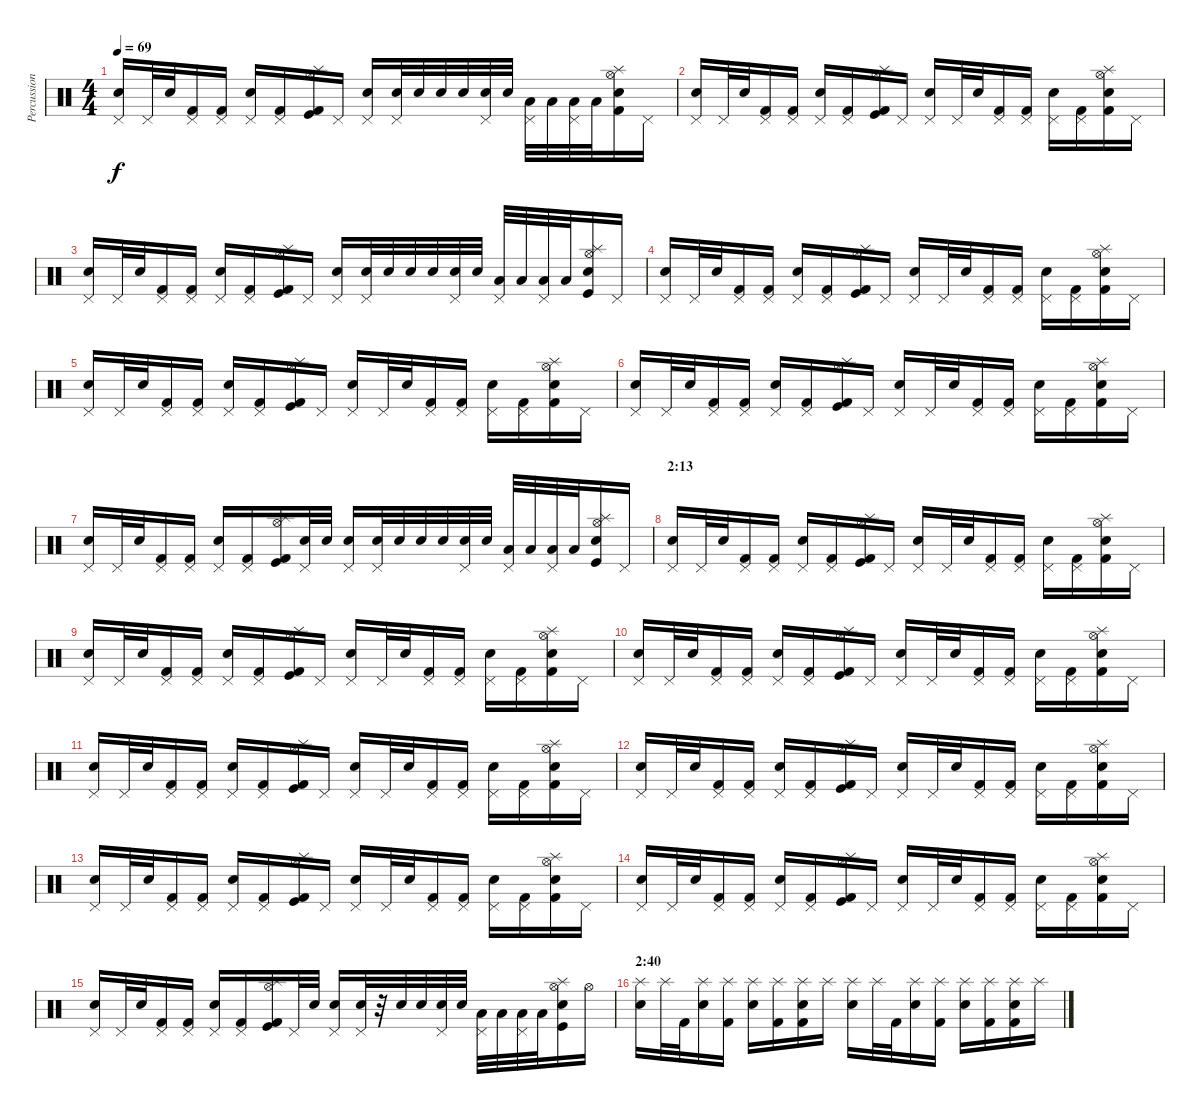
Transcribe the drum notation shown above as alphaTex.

\track ("Percussion" "Percussion") {instrument percussion}
\staff {score}
\articulation defaults
\ts (4 4)
\tempo 69
\clef neutral
\ks c
("Pedal Hi-Hat (hit)" "Snare (hit) 2").16{dy f} "Pedal Hi-Hat (hit)".32 "Snare (hit) 2".32 ("Pedal Hi-Hat (hit)" "Kick (hit) 2").16 ("Pedal Hi-Hat (hit)" "Kick (hit) 2").16 ("Pedal Hi-Hat (hit)" "Snare (hit) 2").16 ("Pedal Hi-Hat (hit)" "Kick (hit) 2").16 ("Splash (hit)" "Hi-Hat (open)" "Kick (hit)" "Kick (hit) 2").16 "Pedal Hi-Hat (hit)".16 ("Pedal Hi-Hat (hit)" "Snare (hit) 2").16 ("Pedal Hi-Hat (hit)" "Snare (hit) 2").32 "Snare (hit) 2".32 "Snare (hit) 2".32 "Snare (hit) 2".32 ("Pedal Hi-Hat (hit)" "Snare (hit) 2").32 "Snare (hit) 2".32 ("Pedal Hi-Hat (hit)" "Low Floor Tom (hit)").32 "Low Floor Tom (hit)".32 ("Pedal Hi-Hat (hit)" "Low Floor Tom (hit)").32 "Low Floor Tom (hit)".32 ("Splash (hit)" "Hi-Hat (open)" "Snare (hit) 2" "Kick (hit) 2").16 "Pedal Hi-Hat (hit)".16 |
("Pedal Hi-Hat (hit)" "Snare (hit) 2").16 "Pedal Hi-Hat (hit)".32 "Snare (hit) 2".32 ("Pedal Hi-Hat (hit)" "Kick (hit) 2").16 ("Pedal Hi-Hat (hit)" "Kick (hit) 2").16 ("Pedal Hi-Hat (hit)" "Snare (hit) 2").16 ("Pedal Hi-Hat (hit)" "Kick (hit) 2").16 ("Splash (hit)" "Hi-Hat (open)" "Kick (hit)" "Kick (hit) 2").16 "Pedal Hi-Hat (hit)".16 ("Pedal Hi-Hat (hit)" "Snare (hit) 2").16 "Pedal Hi-Hat (hit)".32 "Snare (hit) 2".32 ("Pedal Hi-Hat (hit)" "Kick (hit) 2").16 ("Pedal Hi-Hat (hit)" "Kick (hit) 2").16 ("Pedal Hi-Hat (hit)" "Snare (hit) 2").16 ("Pedal Hi-Hat (hit)" "Kick (hit) 2").16 ("Splash (hit)" "Hi-Hat (open)" "Snare (hit) 2" "Kick (hit) 2").16 "Pedal Hi-Hat (hit)".16 |
("Pedal Hi-Hat (hit)" "Snare (hit) 2").16 "Pedal Hi-Hat (hit)".32 "Snare (hit) 2".32 ("Pedal Hi-Hat (hit)" "Kick (hit) 2").16 ("Pedal Hi-Hat (hit)" "Kick (hit) 2").16 ("Pedal Hi-Hat (hit)" "Snare (hit) 2").16 ("Pedal Hi-Hat (hit)" "Kick (hit) 2").16 ("Splash (hit)" "Hi-Hat (open)" "Kick (hit)" "Kick (hit) 2").16 "Pedal Hi-Hat (hit)".16 ("Pedal Hi-Hat (hit)" "Snare (hit) 2").16 ("Pedal Hi-Hat (hit)" "Snare (hit) 2").32 "Snare (hit) 2".32 "Snare (hit) 2".32 "Snare (hit) 2".32 ("Pedal Hi-Hat (hit)" "Snare (hit) 2").32 "Snare (hit) 2".32 ("Pedal Hi-Hat (hit)" "Low Floor Tom (hit)").32 "Low Floor Tom (hit)".32 ("Pedal Hi-Hat (hit)" "Low Floor Tom (hit)").32 "Low Floor Tom (hit)".32 ("Splash (hit)" "Hi-Hat (open)" "Snare (hit) 2" "Kick (hit)").16 "Pedal Hi-Hat (hit)".16 |
("Pedal Hi-Hat (hit)" "Snare (hit) 2").16 "Pedal Hi-Hat (hit)".32 "Snare (hit) 2".32 ("Pedal Hi-Hat (hit)" "Kick (hit) 2").16 ("Pedal Hi-Hat (hit)" "Kick (hit) 2").16 ("Pedal Hi-Hat (hit)" "Snare (hit) 2").16 ("Pedal Hi-Hat (hit)" "Kick (hit) 2").16 ("Splash (hit)" "Hi-Hat (open)" "Kick (hit)" "Kick (hit) 2").16 "Pedal Hi-Hat (hit)".16 ("Pedal Hi-Hat (hit)" "Snare (hit) 2").16 "Pedal Hi-Hat (hit)".32 "Snare (hit) 2".32 ("Pedal Hi-Hat (hit)" "Kick (hit) 2").16 ("Pedal Hi-Hat (hit)" "Kick (hit) 2").16 ("Pedal Hi-Hat (hit)" "Snare (hit) 2").16 ("Pedal Hi-Hat (hit)" "Kick (hit) 2").16 ("Splash (hit)" "Hi-Hat (open)" "Snare (hit) 2" "Kick (hit) 2").16 "Pedal Hi-Hat (hit)".16 |
("Pedal Hi-Hat (hit)" "Snare (hit) 2").16 "Pedal Hi-Hat (hit)".32 "Snare (hit) 2".32 ("Pedal Hi-Hat (hit)" "Kick (hit) 2").16 ("Pedal Hi-Hat (hit)" "Kick (hit) 2").16 ("Pedal Hi-Hat (hit)" "Snare (hit) 2").16 ("Pedal Hi-Hat (hit)" "Kick (hit) 2").16 ("Splash (hit)" "Hi-Hat (open)" "Kick (hit)" "Kick (hit) 2").16 "Pedal Hi-Hat (hit)".16 ("Pedal Hi-Hat (hit)" "Snare (hit) 2").16 "Pedal Hi-Hat (hit)".32 "Snare (hit) 2".32 ("Pedal Hi-Hat (hit)" "Kick (hit) 2").16 ("Pedal Hi-Hat (hit)" "Kick (hit) 2").16 ("Pedal Hi-Hat (hit)" "Snare (hit) 2").16 ("Pedal Hi-Hat (hit)" "Kick (hit) 2").16 ("Splash (hit)" "Hi-Hat (open)" "Snare (hit) 2" "Kick (hit) 2").16 "Pedal Hi-Hat (hit)".16 |
("Pedal Hi-Hat (hit)" "Snare (hit) 2").16 "Pedal Hi-Hat (hit)".32 "Snare (hit) 2".32 ("Pedal Hi-Hat (hit)" "Kick (hit) 2").16 ("Pedal Hi-Hat (hit)" "Kick (hit) 2").16 ("Pedal Hi-Hat (hit)" "Snare (hit) 2").16 ("Pedal Hi-Hat (hit)" "Kick (hit) 2").16 ("Splash (hit)" "Hi-Hat (open)" "Kick (hit)" "Kick (hit) 2").16 "Pedal Hi-Hat (hit)".16 ("Pedal Hi-Hat (hit)" "Snare (hit) 2").16 "Pedal Hi-Hat (hit)".32 "Snare (hit) 2".32 ("Pedal Hi-Hat (hit)" "Kick (hit) 2").16 ("Pedal Hi-Hat (hit)" "Kick (hit) 2").16 ("Pedal Hi-Hat (hit)" "Snare (hit) 2").16 ("Pedal Hi-Hat (hit)" "Kick (hit) 2").16 ("Splash (hit)" "Hi-Hat (open)" "Snare (hit) 2" "Kick (hit) 2").16 "Pedal Hi-Hat (hit)".16 |
("Pedal Hi-Hat (hit)" "Snare (hit) 2").16 "Pedal Hi-Hat (hit)".32 "Snare (hit) 2".32 ("Pedal Hi-Hat (hit)" "Kick (hit) 2").16 ("Pedal Hi-Hat (hit)" "Kick (hit) 2").16 ("Pedal Hi-Hat (hit)" "Snare (hit) 2").16 ("Pedal Hi-Hat (hit)" "Kick (hit) 2").16 ("Splash (hit)" "Hi-Hat (open)" "Kick (hit)" "Kick (hit) 2").16 ("Pedal Hi-Hat (hit)" "Snare (hit) 2").32 "Snare (hit) 2".32 ("Pedal Hi-Hat (hit)" "Snare (hit) 2").16 ("Pedal Hi-Hat (hit)" "Snare (hit) 2").32 "Snare (hit) 2".32 "Snare (hit) 2".32 "Snare (hit) 2".32 ("Pedal Hi-Hat (hit)" "Snare (hit) 2").32 "Snare (hit) 2".32 ("Pedal Hi-Hat (hit)" "Low Floor Tom (hit)").32 "Low Floor Tom (hit)".32 ("Pedal Hi-Hat (hit)" "Low Floor Tom (hit)").32 "Low Floor Tom (hit)".32 ("Splash (hit)" "Hi-Hat (open)" "Snare (hit) 2" "Kick (hit)").16 "Pedal Hi-Hat (hit)".16 |
\section ("" "2:13")
("Pedal Hi-Hat (hit)" "Snare (hit) 2").16 "Pedal Hi-Hat (hit)".32 "Snare (hit) 2".32 ("Pedal Hi-Hat (hit)" "Kick (hit) 2").16 ("Pedal Hi-Hat (hit)" "Kick (hit) 2").16 ("Pedal Hi-Hat (hit)" "Snare (hit) 2").16 ("Pedal Hi-Hat (hit)" "Kick (hit) 2").16 ("Splash (hit)" "Hi-Hat (open)" "Kick (hit)" "Kick (hit) 2").16 "Pedal Hi-Hat (hit)".16 ("Pedal Hi-Hat (hit)" "Snare (hit) 2").16 "Pedal Hi-Hat (hit)".32 "Snare (hit) 2".32 ("Pedal Hi-Hat (hit)" "Kick (hit) 2").16 ("Pedal Hi-Hat (hit)" "Kick (hit) 2").16 ("Pedal Hi-Hat (hit)" "Snare (hit) 2").16 ("Pedal Hi-Hat (hit)" "Kick (hit) 2").16 ("Splash (hit)" "Hi-Hat (open)" "Snare (hit) 2" "Kick (hit) 2").16 "Pedal Hi-Hat (hit)".16 |
("Pedal Hi-Hat (hit)" "Snare (hit) 2").16 "Pedal Hi-Hat (hit)".32 "Snare (hit) 2".32 ("Pedal Hi-Hat (hit)" "Kick (hit) 2").16 ("Pedal Hi-Hat (hit)" "Kick (hit) 2").16 ("Pedal Hi-Hat (hit)" "Snare (hit) 2").16 ("Pedal Hi-Hat (hit)" "Kick (hit) 2").16 ("Splash (hit)" "Hi-Hat (open)" "Kick (hit)" "Kick (hit) 2").16 "Pedal Hi-Hat (hit)".16 ("Pedal Hi-Hat (hit)" "Snare (hit) 2").16 "Pedal Hi-Hat (hit)".32 "Snare (hit) 2".32 ("Pedal Hi-Hat (hit)" "Kick (hit) 2").16 ("Pedal Hi-Hat (hit)" "Kick (hit) 2").16 ("Pedal Hi-Hat (hit)" "Snare (hit) 2").16 ("Pedal Hi-Hat (hit)" "Kick (hit) 2").16 ("Splash (hit)" "Hi-Hat (open)" "Snare (hit) 2" "Kick (hit) 2").16 "Pedal Hi-Hat (hit)".16 |
("Pedal Hi-Hat (hit)" "Snare (hit) 2").16 "Pedal Hi-Hat (hit)".32 "Snare (hit) 2".32 ("Pedal Hi-Hat (hit)" "Kick (hit) 2").16 ("Pedal Hi-Hat (hit)" "Kick (hit) 2").16 ("Pedal Hi-Hat (hit)" "Snare (hit) 2").16 ("Pedal Hi-Hat (hit)" "Kick (hit) 2").16 ("Splash (hit)" "Hi-Hat (open)" "Kick (hit)" "Kick (hit) 2").16 "Pedal Hi-Hat (hit)".16 ("Pedal Hi-Hat (hit)" "Snare (hit) 2").16 "Pedal Hi-Hat (hit)".32 "Snare (hit) 2".32 ("Pedal Hi-Hat (hit)" "Kick (hit) 2").16 ("Pedal Hi-Hat (hit)" "Kick (hit) 2").16 ("Pedal Hi-Hat (hit)" "Snare (hit) 2").16 ("Pedal Hi-Hat (hit)" "Kick (hit) 2").16 ("Splash (hit)" "Hi-Hat (open)" "Snare (hit) 2" "Kick (hit) 2").16 "Pedal Hi-Hat (hit)".16 |
("Pedal Hi-Hat (hit)" "Snare (hit) 2").16 "Pedal Hi-Hat (hit)".32 "Snare (hit) 2".32 ("Pedal Hi-Hat (hit)" "Kick (hit) 2").16 ("Pedal Hi-Hat (hit)" "Kick (hit) 2").16 ("Pedal Hi-Hat (hit)" "Snare (hit) 2").16 ("Pedal Hi-Hat (hit)" "Kick (hit) 2").16 ("Splash (hit)" "Hi-Hat (open)" "Kick (hit)" "Kick (hit) 2").16 "Pedal Hi-Hat (hit)".16 ("Pedal Hi-Hat (hit)" "Snare (hit) 2").16 "Pedal Hi-Hat (hit)".32 "Snare (hit) 2".32 ("Pedal Hi-Hat (hit)" "Kick (hit) 2").16 ("Pedal Hi-Hat (hit)" "Kick (hit) 2").16 ("Pedal Hi-Hat (hit)" "Snare (hit) 2").16 ("Pedal Hi-Hat (hit)" "Kick (hit) 2").16 ("Splash (hit)" "Hi-Hat (open)" "Snare (hit) 2" "Kick (hit) 2").16 "Pedal Hi-Hat (hit)".16 |
("Pedal Hi-Hat (hit)" "Snare (hit) 2").16 "Pedal Hi-Hat (hit)".32 "Snare (hit) 2".32 ("Pedal Hi-Hat (hit)" "Kick (hit) 2").16 ("Pedal Hi-Hat (hit)" "Kick (hit) 2").16 ("Pedal Hi-Hat (hit)" "Snare (hit) 2").16 ("Pedal Hi-Hat (hit)" "Kick (hit) 2").16 ("Splash (hit)" "Hi-Hat (open)" "Kick (hit)" "Kick (hit) 2").16 "Pedal Hi-Hat (hit)".16 ("Pedal Hi-Hat (hit)" "Snare (hit) 2").16 "Pedal Hi-Hat (hit)".32 "Snare (hit) 2".32 ("Pedal Hi-Hat (hit)" "Kick (hit) 2").16 ("Pedal Hi-Hat (hit)" "Kick (hit) 2").16 ("Pedal Hi-Hat (hit)" "Snare (hit) 2").16 ("Pedal Hi-Hat (hit)" "Kick (hit) 2").16 ("Splash (hit)" "Hi-Hat (open)" "Snare (hit) 2" "Kick (hit) 2").16 "Pedal Hi-Hat (hit)".16 |
("Pedal Hi-Hat (hit)" "Snare (hit) 2").16 "Pedal Hi-Hat (hit)".32 "Snare (hit) 2".32 ("Pedal Hi-Hat (hit)" "Kick (hit) 2").16 ("Pedal Hi-Hat (hit)" "Kick (hit) 2").16 ("Pedal Hi-Hat (hit)" "Snare (hit) 2").16 ("Pedal Hi-Hat (hit)" "Kick (hit) 2").16 ("Splash (hit)" "Hi-Hat (open)" "Kick (hit)" "Kick (hit) 2").16 "Pedal Hi-Hat (hit)".16 ("Pedal Hi-Hat (hit)" "Snare (hit) 2").16 "Pedal Hi-Hat (hit)".32 "Snare (hit) 2".32 ("Pedal Hi-Hat (hit)" "Kick (hit) 2").16 ("Pedal Hi-Hat (hit)" "Kick (hit) 2").16 ("Pedal Hi-Hat (hit)" "Snare (hit) 2").16 ("Pedal Hi-Hat (hit)" "Kick (hit) 2").16 ("Splash (hit)" "Hi-Hat (open)" "Snare (hit) 2" "Kick (hit) 2").16 "Pedal Hi-Hat (hit)".16 |
("Pedal Hi-Hat (hit)" "Snare (hit) 2").16 "Pedal Hi-Hat (hit)".32 "Snare (hit) 2".32 ("Pedal Hi-Hat (hit)" "Kick (hit) 2").16 ("Pedal Hi-Hat (hit)" "Kick (hit) 2").16 ("Pedal Hi-Hat (hit)" "Snare (hit) 2").16 ("Pedal Hi-Hat (hit)" "Kick (hit) 2").16 ("Splash (hit)" "Hi-Hat (open)" "Kick (hit)" "Kick (hit) 2").16 "Pedal Hi-Hat (hit)".16 ("Pedal Hi-Hat (hit)" "Snare (hit) 2").16 "Pedal Hi-Hat (hit)".32 "Snare (hit) 2".32 ("Pedal Hi-Hat (hit)" "Kick (hit) 2").16 ("Pedal Hi-Hat (hit)" "Kick (hit) 2").16 ("Pedal Hi-Hat (hit)" "Snare (hit) 2").16 ("Pedal Hi-Hat (hit)" "Kick (hit) 2").16 ("Splash (hit)" "Hi-Hat (open)" "Snare (hit) 2" "Kick (hit) 2").16 "Pedal Hi-Hat (hit)".16 |
("Pedal Hi-Hat (hit)" "Snare (hit) 2").16 "Pedal Hi-Hat (hit)".32 "Snare (hit) 2".32 ("Pedal Hi-Hat (hit)" "Kick (hit) 2").16 ("Pedal Hi-Hat (hit)" "Kick (hit) 2").16 ("Pedal Hi-Hat (hit)" "Snare (hit) 2").16 ("Pedal Hi-Hat (hit)" "Kick (hit) 2").16 ("Splash (hit)" "Hi-Hat (open)" "Kick (hit)" "Kick (hit) 2").16 "Pedal Hi-Hat (hit)".32 "Snare (hit) 2".32 ("Pedal Hi-Hat (hit)" "Snare (hit) 2").16 ("Pedal Hi-Hat (hit)" "Snare (hit) 2").32 r.32 "Snare (hit) 2".32 "Snare (hit) 2".32 ("Pedal Hi-Hat (hit)" "Snare (hit) 2").32 "Snare (hit) 2".32 ("Pedal Hi-Hat (hit)" "Low Floor Tom (hit)").32 "Low Floor Tom (hit)".32 ("Pedal Hi-Hat (hit)" "Low Floor Tom (hit)").32 "Low Floor Tom (hit)".32 ("Splash (hit)" "Hi-Hat (open)" "Snare (hit) 2" "Kick (hit)").16 "Hi-Hat (open)".16 |
\section ("" "2:40")
("Splash (hit)" "Snare (hit) 2").16 "Splash (hit)".32 "Kick (hit) 2".32 ("Splash (hit)" "Snare (hit) 2").16 ("Splash (hit)" "Kick (hit) 2").16 ("Splash (hit)" "Snare (hit) 2").16 ("Splash (hit)" "Kick (hit) 2").16 ("Splash (hit)" "Snare (hit) 2" "Kick (hit) 2").16 "Splash (hit)".16 ("Splash (hit)" "Snare (hit) 2").16 "Splash (hit)".32 "Kick (hit) 2".32 ("Splash (hit)" "Snare (hit) 2").16 ("Splash (hit)" "Kick (hit) 2").16 ("Splash (hit)" "Snare (hit) 2").16 ("Splash (hit)" "Kick (hit) 2").16 ("Splash (hit)" "Snare (hit) 2" "Kick (hit) 2").16 "Splash (hit)".16
